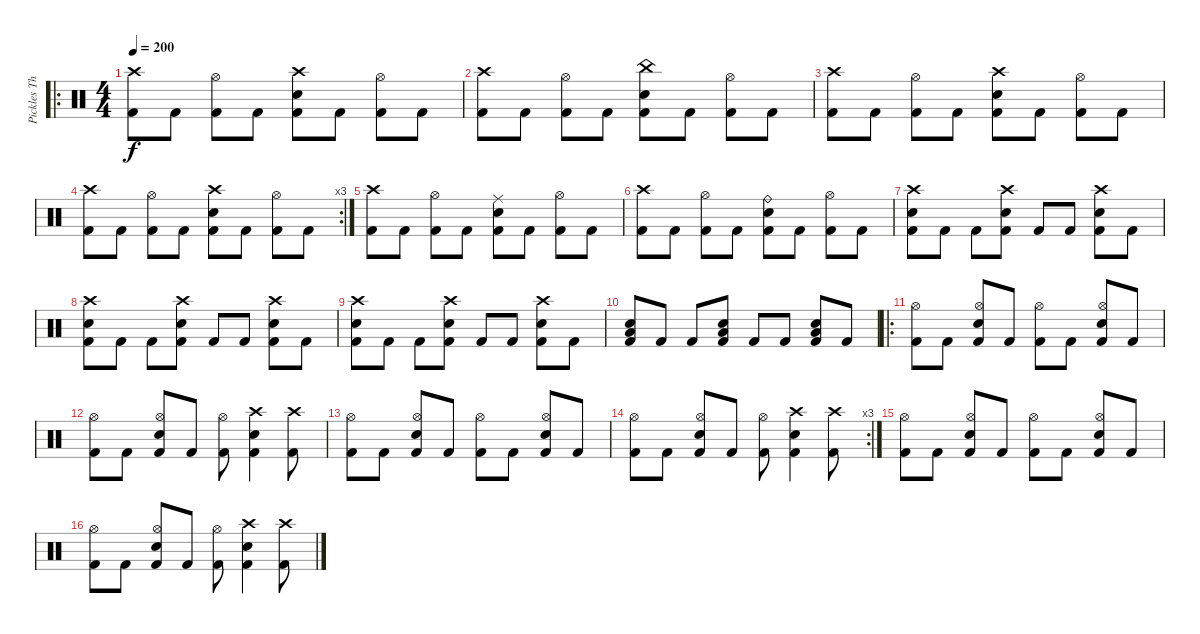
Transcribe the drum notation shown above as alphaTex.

\track ("Pickles The Drummer" "Pickles Th") {instrument percussion}
\staff {score}
\articulation defaults
\ro
\ts (4 4)
\tempo 200
\clef neutral
\ks c
("Crash high (hit)" "Kick (hit) 2").8{dy f} "Kick (hit) 2".8 ("Hi-Hat (open)" "Kick (hit) 2").8 "Kick (hit) 2".8 ("Crash high (hit)" "Electric Snare (hit)" "Kick (hit) 2").8 "Kick (hit) 2".8 ("Hi-Hat (open)" "Kick (hit) 2").8 "Kick (hit) 2".8 |
("Crash high (hit)" "Kick (hit) 2").8 "Kick (hit) 2".8 ("Hi-Hat (open)" "Kick (hit) 2").8 "Kick (hit) 2".8 ("China (hit)" "Electric Snare (hit)" "Kick (hit) 2").8 "Kick (hit) 2".8 ("Hi-Hat (open)" "Kick (hit) 2").8 "Kick (hit) 2".8 |
("Crash high (hit)" "Kick (hit) 2").8 "Kick (hit) 2".8 ("Hi-Hat (open)" "Kick (hit) 2").8 "Kick (hit) 2".8 ("Crash high (hit)" "Electric Snare (hit)" "Kick (hit) 2").8 "Kick (hit) 2".8 ("Hi-Hat (open)" "Kick (hit) 2").8 "Kick (hit) 2".8 |
\rc 3
("Crash high (hit)" "Kick (hit) 2").8 "Kick (hit) 2".8 ("Hi-Hat (open)" "Kick (hit) 2").8 "Kick (hit) 2".8 ("Crash high (hit)" "Electric Snare (hit)" "Kick (hit) 2").8 "Kick (hit) 2".8 ("Hi-Hat (open)" "Kick (hit) 2").8 "Kick (hit) 2".8 |
("Crash high (hit)" "Kick (hit) 2").8 "Kick (hit) 2".8 ("Hi-Hat (open)" "Kick (hit) 2").8 "Kick (hit) 2".8 ("Ride (middle)" "Electric Snare (hit)" "Kick (hit) 2").8 "Kick (hit) 2".8 ("Hi-Hat (open)" "Kick (hit) 2").8 "Kick (hit) 2".8 |
("Crash high (hit)" "Kick (hit) 2").8 "Kick (hit) 2".8 ("Hi-Hat (open)" "Kick (hit) 2").8 "Kick (hit) 2".8 ("Ride (bell)" "Electric Snare (hit)" "Kick (hit) 2").8 "Kick (hit) 2".8 ("Hi-Hat (open)" "Kick (hit) 2").8 "Kick (hit) 2".8 |
("Crash high (hit)" "Electric Snare (hit)" "Kick (hit) 2").8 "Kick (hit) 2".8 "Kick (hit) 2".8 ("Crash high (hit)" "Electric Snare (hit)" "Kick (hit) 2").8 "Kick (hit) 2".8 "Kick (hit) 2".8 ("Crash high (hit)" "Electric Snare (hit)" "Kick (hit) 2").8 "Kick (hit) 2".8 |
("Crash high (hit)" "Electric Snare (hit)" "Kick (hit) 2").8 "Kick (hit) 2".8 "Kick (hit) 2".8 ("Crash high (hit)" "Electric Snare (hit)" "Kick (hit) 2").8 "Kick (hit) 2".8 "Kick (hit) 2".8 ("Crash high (hit)" "Electric Snare (hit)" "Kick (hit) 2").8 "Kick (hit) 2".8 |
("Crash high (hit)" "Electric Snare (hit)" "Kick (hit) 2").8 "Kick (hit) 2".8 "Kick (hit) 2".8 ("Crash high (hit)" "Electric Snare (hit)" "Kick (hit) 2").8 "Kick (hit) 2".8 "Kick (hit) 2".8 ("Crash high (hit)" "Electric Snare (hit)" "Kick (hit) 2").8 "Kick (hit) 2".8 |
("Low Floor Tom (hit)" "Electric Snare (hit)" "Kick (hit) 2").8 "Kick (hit) 2".8 "Kick (hit) 2".8 ("Low Floor Tom (hit)" "Electric Snare (hit)" "Kick (hit) 2").8 "Kick (hit) 2".8 "Kick (hit) 2".8 ("Low Floor Tom (hit)" "Electric Snare (hit)" "Kick (hit) 2").8 "Kick (hit) 2".8 |
\ro
("Hi-Hat (open)" "Kick (hit) 2").8 "Kick (hit) 2".8 ("Hi-Hat (open)" "Electric Snare (hit)" "Kick (hit) 2").8 "Kick (hit) 2".8 ("Hi-Hat (open)" "Kick (hit) 2").8 "Kick (hit) 2".8 ("Hi-Hat (open)" "Electric Snare (hit)" "Kick (hit) 2").8 "Kick (hit) 2".8 |
("Hi-Hat (open)" "Kick (hit) 2").8 "Kick (hit) 2".8 ("Hi-Hat (open)" "Electric Snare (hit)" "Kick (hit) 2").8 "Kick (hit) 2".8 ("Hi-Hat (open)" "Kick (hit) 2").8 ("Crash high (hit)" "Electric Snare (hit)" "Kick (hit) 2").4 ("Crash high (hit)" "Kick (hit) 2").8 |
("Hi-Hat (open)" "Kick (hit) 2").8 "Kick (hit) 2".8 ("Hi-Hat (open)" "Electric Snare (hit)" "Kick (hit) 2").8 "Kick (hit) 2".8 ("Hi-Hat (open)" "Kick (hit) 2").8 "Kick (hit) 2".8 ("Hi-Hat (open)" "Electric Snare (hit)" "Kick (hit) 2").8 "Kick (hit) 2".8 |
\rc 3
("Hi-Hat (open)" "Kick (hit) 2").8 "Kick (hit) 2".8 ("Hi-Hat (open)" "Electric Snare (hit)" "Kick (hit) 2").8 "Kick (hit) 2".8 ("Hi-Hat (open)" "Kick (hit) 2").8 ("Crash high (hit)" "Electric Snare (hit)" "Kick (hit) 2").4 ("Crash high (hit)" "Kick (hit) 2").8 |
("Hi-Hat (open)" "Kick (hit) 2").8 "Kick (hit) 2".8 ("Hi-Hat (open)" "Electric Snare (hit)" "Kick (hit) 2").8 "Kick (hit) 2".8 ("Hi-Hat (open)" "Kick (hit) 2").8 "Kick (hit) 2".8 ("Hi-Hat (open)" "Electric Snare (hit)" "Kick (hit) 2").8 "Kick (hit) 2".8 |
("Hi-Hat (open)" "Kick (hit) 2").8 "Kick (hit) 2".8 ("Hi-Hat (open)" "Electric Snare (hit)" "Kick (hit) 2").8 "Kick (hit) 2".8 ("Hi-Hat (open)" "Kick (hit) 2").8 ("Crash high (hit)" "Electric Snare (hit)" "Kick (hit) 2").4 ("Crash high (hit)" "Kick (hit) 2").8
